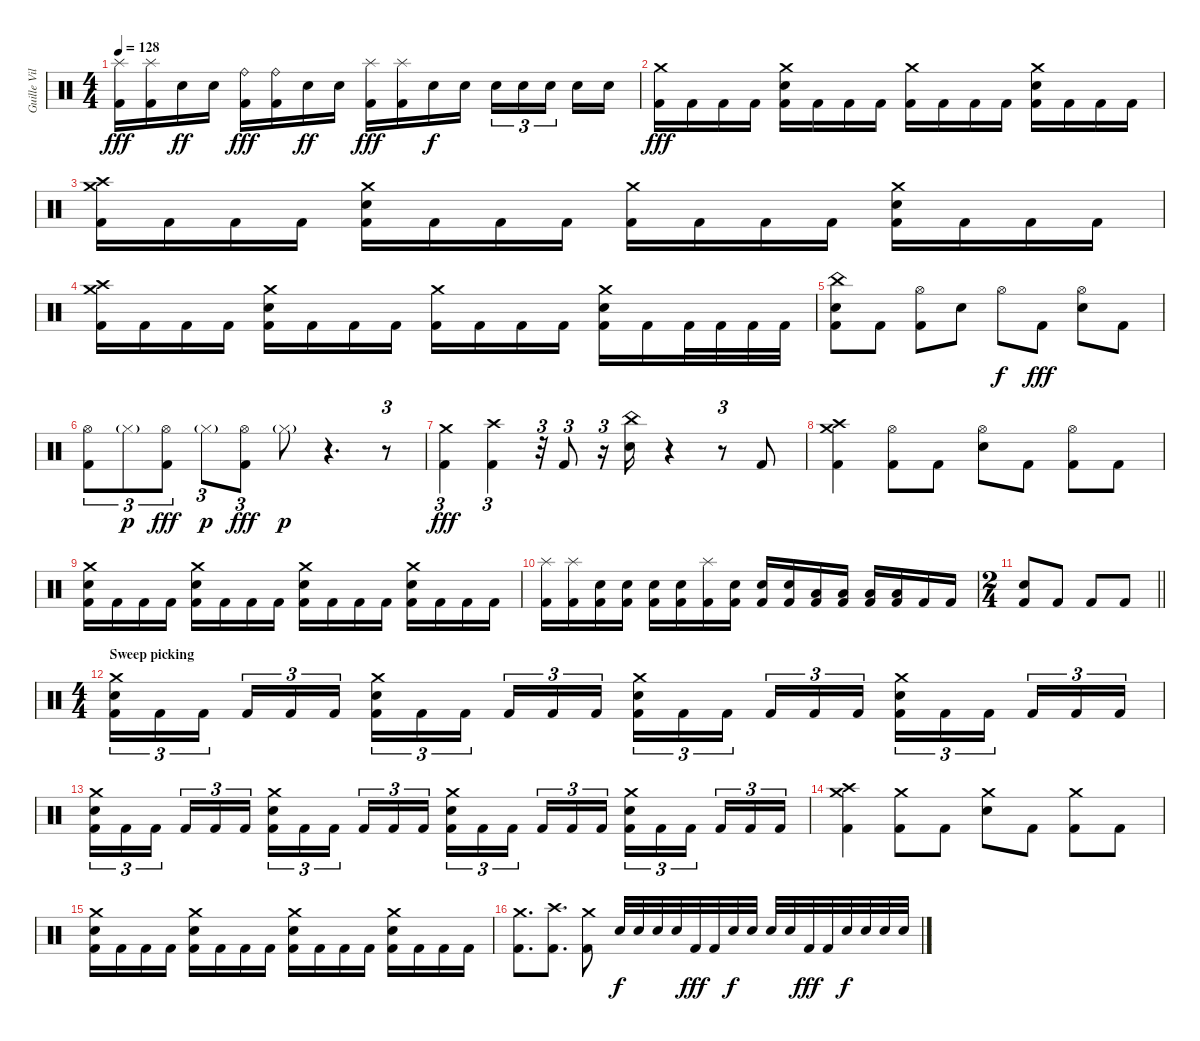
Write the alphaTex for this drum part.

\track ("Guille Vila" "Guille Vil") {instrument percussion}
\staff {score}
\articulation defaults
\ts (4 4)
\tempo 128
\clef neutral
\ks c
("Splash (hit)" "Kick (hit) 2").16{dy fff} ("Splash (hit)" "Kick (hit) 2").16 "Snare (hit) 2".16{dy ff} "Snare (hit) 2".16 ("Ride (bell)" "Kick (hit) 2").16{dy fff} ("Ride (bell)" "Kick (hit) 2").16 "Snare (hit) 2".16{dy ff} "Snare (hit) 2".16 ("Splash (hit)" "Kick (hit) 2").16{dy fff} ("Splash (hit)" "Kick (hit) 2").16 "Snare (hit) 2".16{dy f} "Snare (hit) 2".16 "Snare (hit) 2".16{tu (3 2)} "Snare (hit) 2".16{tu (3 2)} "Snare (hit) 2".16{tu (3 2) beam splitsecondary} "Snare (hit) 2".16 "Snare (hit) 2".16 |
("Crash medium (hit)" "Kick (hit) 2").16{dy fff} "Kick (hit) 2".16 "Kick (hit) 2".16 "Kick (hit) 2".16 ("Crash medium (hit)" "Snare (hit) 2" "Kick (hit) 2").16 "Kick (hit) 2".16 "Kick (hit) 2".16 "Kick (hit) 2".16 ("Crash medium (hit)" "Kick (hit) 2").16 "Kick (hit) 2".16 "Kick (hit) 2".16 "Kick (hit) 2".16 ("Crash medium (hit)" "Snare (hit) 2" "Kick (hit) 2").16 "Kick (hit) 2".16 "Kick (hit) 2".16 "Kick (hit) 2".16 |
("Crash high (hit)" "Crash medium (hit)" "Kick (hit) 2").16 "Kick (hit) 2".16 "Kick (hit) 2".16 "Kick (hit) 2".16 ("Crash medium (hit)" "Snare (hit) 2" "Kick (hit) 2").16 "Kick (hit) 2".16 "Kick (hit) 2".16 "Kick (hit) 2".16 ("Crash medium (hit)" "Kick (hit) 2").16 "Kick (hit) 2".16 "Kick (hit) 2".16 "Kick (hit) 2".16 ("Crash medium (hit)" "Snare (hit) 2" "Kick (hit) 2").16 "Kick (hit) 2".16 "Kick (hit) 2".16 "Kick (hit) 2".16 |
("Crash high (hit)" "Crash medium (hit)" "Kick (hit) 2").16 "Kick (hit) 2".16 "Kick (hit) 2".16 "Kick (hit) 2".16 ("Crash medium (hit)" "Snare (hit) 2" "Kick (hit) 2").16 "Kick (hit) 2".16 "Kick (hit) 2".16 "Kick (hit) 2".16 ("Crash medium (hit)" "Kick (hit) 2").16 "Kick (hit) 2".16 "Kick (hit) 2".16 "Kick (hit) 2".16 ("Crash medium (hit)" "Snare (hit) 2" "Kick (hit) 2").16 "Kick (hit) 2".16 "Kick (hit) 2".32 "Kick (hit) 2".32 "Kick (hit) 2".32 "Kick (hit) 2".32 |
("China (hit)" "Snare (hit) 2" "Kick (hit) 2").8 "Kick (hit) 2".8 ("Hi-Hat (open)" "Kick (hit) 2").8 "Snare (hit) 2".8 "Hi-Hat (open)".8{dy f} "Kick (hit) 2".8{dy fff} ("Hi-Hat (open)" "Snare (hit) 2").8 "Kick (hit) 2".8 |
("Hi-Hat (open)" "Kick (hit) 2").8{tu (3 2)} "Hi-Hat (closed)"{g}.8{tu (3 2) dy p} ("Hi-Hat (open)" "Kick (hit) 2").8{tu (3 2) dy fff} "Hi-Hat (closed)"{g}.8{tu (3 2) dy p} ("Hi-Hat (open)" "Kick (hit) 2").8{tu (3 2) dy fff} "Hi-Hat (closed)"{g}.8{dy p} r.4{d} r.8{tu (3 2)} |
("Crash medium (hit)" "Kick (hit) 2").4{tu (3 2) dy fff} ("Crash high (hit)" "Kick (hit) 2").4{tu (3 2)} r.32{tu (3 2)} "Kick (hit) 2".8{tu (3 2)} r.16{tu (3 2)} ("China (hit)" "Snare (hit) 2").16 r.4 r.8{tu (3 2)} "Kick (hit) 2".8 |
("Crash medium (hit)" "Crash high (hit)" "Kick (hit) 2").4 ("Hi-Hat (open)" "Kick (hit) 2").8 "Kick (hit) 2".8 ("Hi-Hat (open)" "Snare (hit) 2").8 "Kick (hit) 2".8 ("Hi-Hat (open)" "Kick (hit) 2").8 "Kick (hit) 2".8 |
("Crash medium (hit)" "Snare (hit) 2" "Kick (hit) 2").16 "Kick (hit) 2".16 "Kick (hit) 2".16 "Kick (hit) 2".16 ("Crash medium (hit)" "Snare (hit) 2" "Kick (hit) 2").16 "Kick (hit) 2".16 "Kick (hit) 2".16 "Kick (hit) 2".16 ("Crash medium (hit)" "Snare (hit) 2" "Kick (hit) 2").16 "Kick (hit) 2".16 "Kick (hit) 2".16 "Kick (hit) 2".16 ("Crash medium (hit)" "Snare (hit) 2" "Kick (hit) 2").16 "Kick (hit) 2".16 "Kick (hit) 2".16 "Kick (hit) 2".16 |
("Splash (hit)" "Kick (hit) 2").16 ("Splash (hit)" "Kick (hit) 2").16 ("Snare (hit) 2" "Kick (hit) 2").16 ("Snare (hit) 2" "Kick (hit) 2").16 ("Snare (hit) 2" "Kick (hit) 2").16 ("Snare (hit) 2" "Kick (hit) 2").16 ("Splash (hit)" "Kick (hit) 2").16 ("Snare (hit) 2" "Kick (hit) 2").16 ("Snare (hit) 2" "Kick (hit) 2").16 ("Snare (hit) 2" "Kick (hit) 2").16 ("Low Tom (hit)" "Kick (hit) 2").16 ("Low Tom (hit)" "Kick (hit) 2").16 ("Low Tom (hit)" "Kick (hit) 2").16 ("Low Tom (hit)" "Kick (hit) 2").16 "Kick (hit) 2".16 "Kick (hit) 2".16 |
\ts (2 4)
\barLineRight lightlight
("Snare (hit) 2" "Kick (hit) 2").8 "Kick (hit) 2".8 "Kick (hit) 2".8 "Kick (hit) 2".8 |
\ts (4 4)
\section ("" "Sweep picking")
("Crash medium (hit)" "Snare (hit) 2" "Kick (hit) 2").16{tu (3 2)} "Kick (hit) 2".16{tu (3 2)} "Kick (hit) 2".16{tu (3 2) beam splitsecondary} "Kick (hit) 2".16{tu (3 2)} "Kick (hit) 2".16{tu (3 2)} "Kick (hit) 2".16{tu (3 2)} ("Crash medium (hit)" "Snare (hit) 2" "Kick (hit) 2").16{tu (3 2)} "Kick (hit) 2".16{tu (3 2)} "Kick (hit) 2".16{tu (3 2) beam splitsecondary} "Kick (hit) 2".16{tu (3 2)} "Kick (hit) 2".16{tu (3 2)} "Kick (hit) 2".16{tu (3 2)} ("Crash medium (hit)" "Snare (hit) 2" "Kick (hit) 2").16{tu (3 2)} "Kick (hit) 2".16{tu (3 2)} "Kick (hit) 2".16{tu (3 2) beam splitsecondary} "Kick (hit) 2".16{tu (3 2)} "Kick (hit) 2".16{tu (3 2)} "Kick (hit) 2".16{tu (3 2)} ("Crash medium (hit)" "Snare (hit) 2" "Kick (hit) 2").16{tu (3 2)} "Kick (hit) 2".16{tu (3 2)} "Kick (hit) 2".16{tu (3 2) beam splitsecondary} "Kick (hit) 2".16{tu (3 2)} "Kick (hit) 2".16{tu (3 2)} "Kick (hit) 2".16{tu (3 2)} |
("Crash medium (hit)" "Snare (hit) 2" "Kick (hit) 2").16{tu (3 2)} "Kick (hit) 2".16{tu (3 2)} "Kick (hit) 2".16{tu (3 2) beam splitsecondary} "Kick (hit) 2".16{tu (3 2)} "Kick (hit) 2".16{tu (3 2)} "Kick (hit) 2".16{tu (3 2)} ("Crash medium (hit)" "Snare (hit) 2" "Kick (hit) 2").16{tu (3 2)} "Kick (hit) 2".16{tu (3 2)} "Kick (hit) 2".16{tu (3 2) beam splitsecondary} "Kick (hit) 2".16{tu (3 2)} "Kick (hit) 2".16{tu (3 2)} "Kick (hit) 2".16{tu (3 2)} ("Crash medium (hit)" "Snare (hit) 2" "Kick (hit) 2").16{tu (3 2)} "Kick (hit) 2".16{tu (3 2)} "Kick (hit) 2".16{tu (3 2) beam splitsecondary} "Kick (hit) 2".16{tu (3 2)} "Kick (hit) 2".16{tu (3 2)} "Kick (hit) 2".16{tu (3 2)} ("Crash medium (hit)" "Snare (hit) 2" "Kick (hit) 2").16{tu (3 2)} "Kick (hit) 2".16{tu (3 2)} "Kick (hit) 2".16{tu (3 2) beam splitsecondary} "Kick (hit) 2".16{tu (3 2)} "Kick (hit) 2".16{tu (3 2)} "Kick (hit) 2".16{tu (3 2)} |
("Crash medium (hit)" "Crash high (hit)" "Kick (hit) 2").4 ("Crash medium (hit)" "Kick (hit) 2").8 "Kick (hit) 2".8 ("Crash medium (hit)" "Snare (hit) 2").8 "Kick (hit) 2".8 ("Crash medium (hit)" "Kick (hit) 2").8 "Kick (hit) 2".8 |
("Crash medium (hit)" "Snare (hit) 2" "Kick (hit) 2").16 "Kick (hit) 2".16 "Kick (hit) 2".16 "Kick (hit) 2".16 ("Crash medium (hit)" "Snare (hit) 2" "Kick (hit) 2").16 "Kick (hit) 2".16 "Kick (hit) 2".16 "Kick (hit) 2".16 ("Crash medium (hit)" "Snare (hit) 2" "Kick (hit) 2").16 "Kick (hit) 2".16 "Kick (hit) 2".16 "Kick (hit) 2".16 ("Crash medium (hit)" "Snare (hit) 2" "Kick (hit) 2").16 "Kick (hit) 2".16 "Kick (hit) 2".16 "Kick (hit) 2".16 |
("Crash medium (hit)" "Kick (hit) 2").8{d} ("Crash high (hit)" "Kick (hit) 2").8{d} ("Crash medium (hit)" "Kick (hit) 2").8 "Snare (hit) 2".32{dy f} "Snare (hit) 2".32 "Snare (hit) 2".32 "Snare (hit) 2".32 "Kick (hit) 2".32{dy fff} "Kick (hit) 2".32 "Snare (hit) 2".32{dy f} "Snare (hit) 2".32 "Snare (hit) 2".32 "Snare (hit) 2".32 "Kick (hit) 2".32{dy fff} "Kick (hit) 2".32 "Snare (hit) 2".32{dy f} "Snare (hit) 2".32 "Snare (hit) 2".32 "Snare (hit) 2".32
